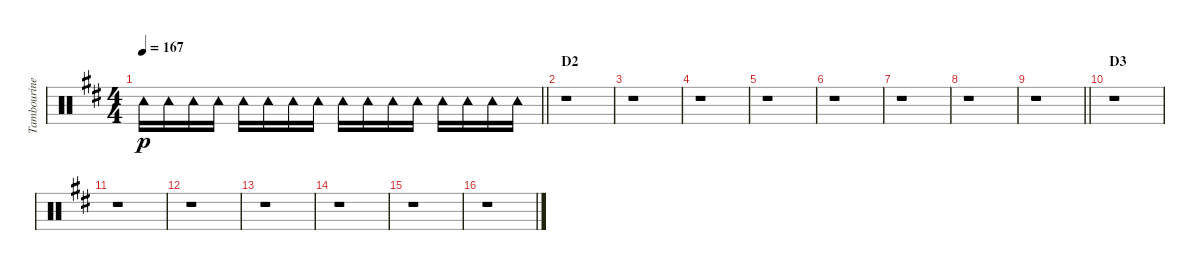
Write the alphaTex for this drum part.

\track ("Tambourine" "Tambourine") {instrument percussion}
\staff {score}
\articulation defaults
\ts (4 4)
\tempo 167
\clef neutral
\barLineRight lightlight
\ks d "Tambourine (hit)".16{dy p} "Tambourine (hit)".16 "Tambourine (hit)".16 "Tambourine (hit)".16 "Tambourine (hit)".16 "Tambourine (hit)".16 "Tambourine (hit)".16 "Tambourine (hit)".16 "Tambourine (hit)".16 "Tambourine (hit)".16 "Tambourine (hit)".16 "Tambourine (hit)".16 "Tambourine (hit)".16 "Tambourine (hit)".16 "Tambourine (hit)".16 "Tambourine (hit)".16
|
\section ("" "D2")
r.1 |
r.1 |
r.1 |
r.1 |
r.1 |
r.1 |
r.1 |
\barLineRight lightlight
r.1 |
\section ("" "D3")
r.1 |
r.1 |
r.1 |
r.1 |
r.1 |
r.1 |
r.1
